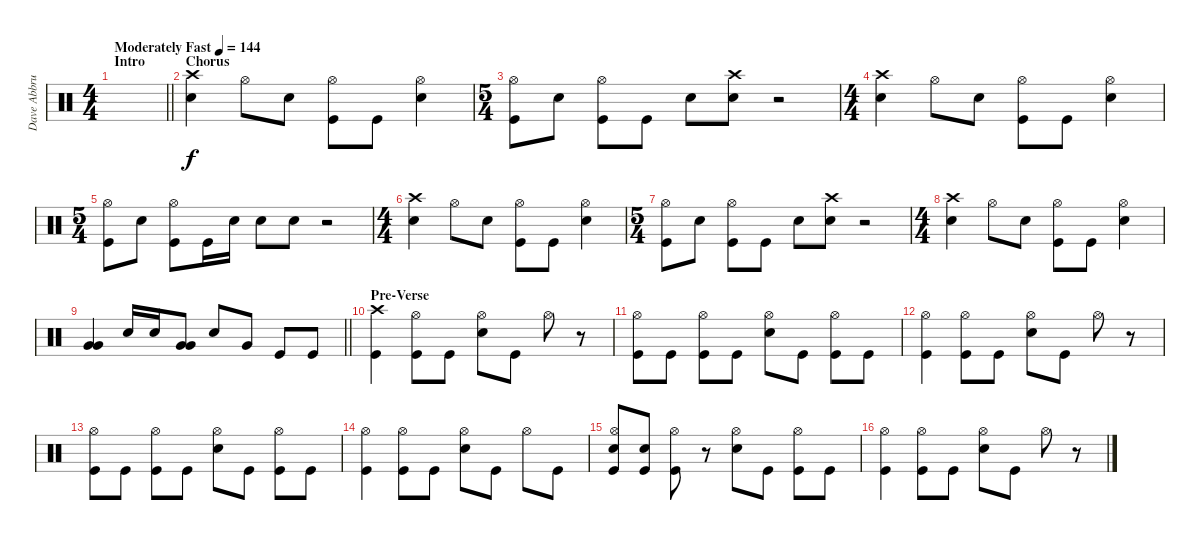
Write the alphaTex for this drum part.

\track ("Dave Abbruzzese" "Dave Abbru") {instrument percussion}
\staff {score}
\articulation defaults
\ts (4 4)
\section ("" "Intro")
\tempo (144 "Moderately Fast")
\clef neutral
\barLineRight lightlight
\ks c
|
\section ("" "Chorus")
("Crash high (hit)" "Electric Snare (hit)").4 "Hi-Hat (open)".8 "Electric Snare (hit)".8 ("Hi-Hat (open)" "Kick (hit)").8 "Kick (hit)".8 ("Hi-Hat (open)" "Electric Snare (hit)").4 |
\ts (5 4)
("Hi-Hat (open)" "Kick (hit)").8 "Electric Snare (hit)".8 ("Hi-Hat (open)" "Kick (hit)").8 "Kick (hit)".8 "Electric Snare (hit)".8 ("Crash high (hit)" "Electric Snare (hit)").8 r.2 |
\ts (4 4)
("Crash high (hit)" "Electric Snare (hit)").4 "Hi-Hat (open)".8 "Electric Snare (hit)".8 ("Hi-Hat (open)" "Kick (hit)").8 "Kick (hit)".8 ("Hi-Hat (open)" "Electric Snare (hit)").4 |
\ts (5 4)
("Hi-Hat (open)" "Kick (hit)").8 "Electric Snare (hit)".8 ("Hi-Hat (open)" "Kick (hit)").8 "Kick (hit)".16 "Electric Snare (hit)".16 "Electric Snare (hit)".8 "Electric Snare (hit)".8 r.2 |
\ts (4 4)
("Crash high (hit)" "Electric Snare (hit)").4 "Hi-Hat (open)".8 "Electric Snare (hit)".8 ("Hi-Hat (open)" "Kick (hit)").8 "Kick (hit)".8 ("Hi-Hat (open)" "Electric Snare (hit)").4 |
\ts (5 4)
("Hi-Hat (open)" "Kick (hit)").8 "Electric Snare (hit)".8 ("Hi-Hat (open)" "Kick (hit)").8 "Kick (hit)".8 "Electric Snare (hit)".8 ("Crash high (hit)" "Electric Snare (hit)").8 r.2 |
\ts (4 4)
("Crash high (hit)" "Electric Snare (hit)").4 "Hi-Hat (open)".8 "Electric Snare (hit)".8 ("Hi-Hat (open)" "Kick (hit)").8 "Kick (hit)".8 ("Hi-Hat (open)" "Electric Snare (hit)").4 |
\barLineRight lightlight
("Very Low Tom (hit)" "Very Low Tom (hit)").4 "Electric Snare (hit)".16 "Electric Snare (hit)".16 ("Very Low Tom (hit)" "Very Low Tom (hit)").8 "Electric Snare (hit)".8 "Very Low Tom (hit)".8 "Kick (hit)".8 "Kick (hit)".8 |
\section ("" "Pre-Verse")
("Crash high (hit)" "Kick (hit)").4 ("Hi-Hat (open)" "Kick (hit)").8 "Kick (hit)".8 ("Hi-Hat (open)" "Electric Snare (hit)").8 "Kick (hit)".8 "Hi-Hat (open)".8 r.8 |
("Hi-Hat (open)" "Kick (hit)").8 "Kick (hit)".8 ("Hi-Hat (open)" "Kick (hit)").8 "Kick (hit)".8 ("Hi-Hat (open)" "Electric Snare (hit)").8 "Kick (hit)".8 ("Hi-Hat (open)" "Kick (hit)").8 "Kick (hit)".8 |
("Hi-Hat (open)" "Kick (hit)").4 ("Hi-Hat (open)" "Kick (hit)").8 "Kick (hit)".8 ("Hi-Hat (open)" "Electric Snare (hit)").8 "Kick (hit)".8 "Hi-Hat (open)".8 r.8 |
("Hi-Hat (open)" "Kick (hit)").8 "Kick (hit)".8 ("Hi-Hat (open)" "Kick (hit)").8 "Kick (hit)".8 ("Hi-Hat (open)" "Electric Snare (hit)").8 "Kick (hit)".8 ("Hi-Hat (open)" "Kick (hit)").8 "Kick (hit)".8 |
("Hi-Hat (open)" "Kick (hit)").4 ("Hi-Hat (open)" "Kick (hit)").8 "Kick (hit)".8 ("Hi-Hat (open)" "Electric Snare (hit)").8 "Kick (hit)".8 "Hi-Hat (open)".8 "Kick (hit)".8 |
("Hi-Hat (open)" "Electric Snare (hit)" "Kick (hit)").8 ("Electric Snare (hit)" "Kick (hit)").8 ("Hi-Hat (open)" "Kick (hit)").8 r.8 ("Hi-Hat (open)" "Electric Snare (hit)").8 "Kick (hit)".8 ("Hi-Hat (open)" "Kick (hit)").8 "Kick (hit)".8 |
("Hi-Hat (open)" "Kick (hit)").4 ("Hi-Hat (open)" "Kick (hit)").8 "Kick (hit)".8 ("Hi-Hat (open)" "Electric Snare (hit)").8 "Kick (hit)".8 "Hi-Hat (open)".8 r.8
